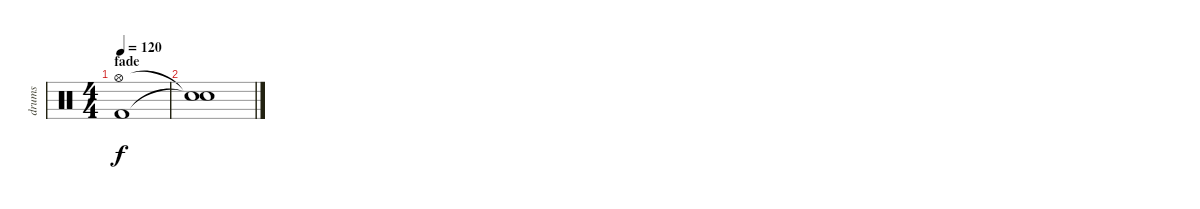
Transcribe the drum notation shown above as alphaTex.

\track ("drums" "drums") {instrument percussion}
\staff {score}
\articulation defaults
\ts (4 4)
\section ("" "fade")
\tempo 120
\clef neutral
\ks c
("Hi-Hat (open)" "Kick (hit) 2").1{dy f} |
("Snare (hit)"{t} "Snare (hit)"{t}).1
